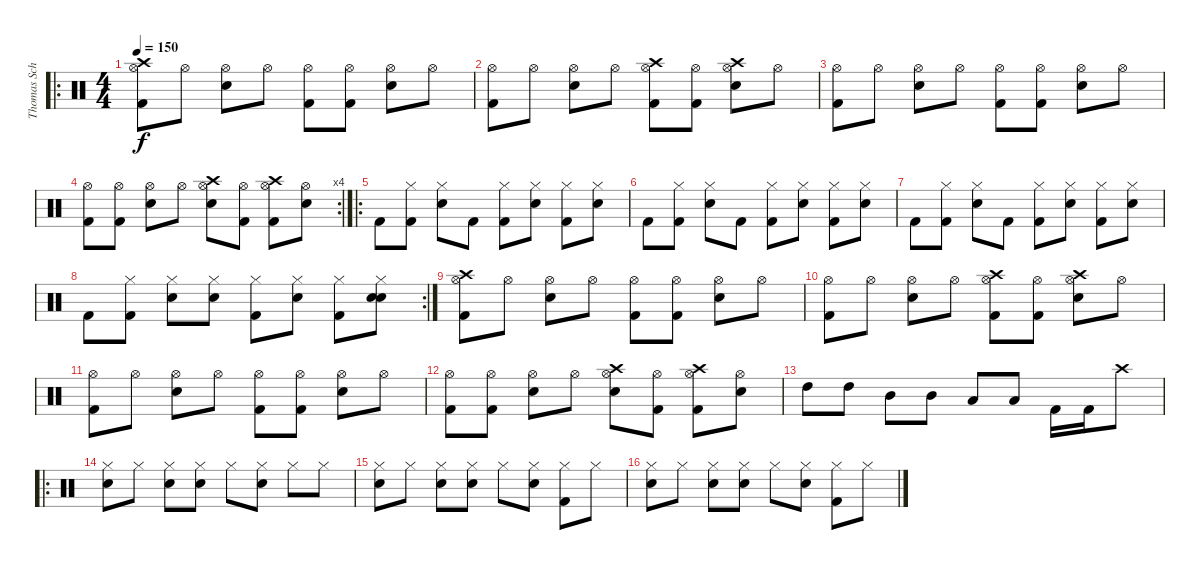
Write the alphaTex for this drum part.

\track ("Thomas Schnitzler" "Thomas Sch") {instrument percussion}
\staff {score}
\articulation defaults
\ro
\ts (4 4)
\tempo 150
\clef neutral
\ks c
("Hi-Hat (open)" "Crash high (hit)" "Kick (hit) 2").8{dy f} "Hi-Hat (open)".8 ("Hi-Hat (open)" "Snare (hit) 2").8 "Hi-Hat (open)".8 ("Hi-Hat (open)" "Kick (hit) 2").8 ("Hi-Hat (open)" "Kick (hit) 2").8 ("Hi-Hat (open)" "Snare (hit) 2").8 "Hi-Hat (open)".8 |
("Hi-Hat (open)" "Kick (hit) 2").8 "Hi-Hat (open)".8 ("Hi-Hat (open)" "Snare (hit) 2").8 "Hi-Hat (open)".8 ("Hi-Hat (open)" "Crash high (hit)" "Kick (hit) 2").8 ("Hi-Hat (open)" "Kick (hit) 2").8 ("Hi-Hat (open)" "Crash high (hit)" "Snare (hit) 2").8 "Hi-Hat (open)".8 |
("Hi-Hat (open)" "Kick (hit) 2").8 "Hi-Hat (open)".8 ("Hi-Hat (open)" "Snare (hit) 2").8 "Hi-Hat (open)".8 ("Hi-Hat (open)" "Kick (hit) 2").8 ("Hi-Hat (open)" "Kick (hit) 2").8 ("Hi-Hat (open)" "Snare (hit) 2").8 "Hi-Hat (open)".8 |
\rc 4
("Hi-Hat (open)" "Kick (hit) 2").8 ("Hi-Hat (open)" "Kick (hit) 2").8 ("Hi-Hat (open)" "Snare (hit) 2").8 "Hi-Hat (open)".8 ("Hi-Hat (open)" "Crash high (hit)" "Snare (hit) 2").8 ("Hi-Hat (open)" "Kick (hit) 2").8 ("Hi-Hat (open)" "Crash high (hit)" "Kick (hit) 2").8 ("Hi-Hat (open)" "Snare (hit) 2").8 |
\ro "Kick (hit) 2".8
("Hi-Hat (closed)" "Kick (hit) 2").8 ("Hi-Hat (closed)" "Snare (hit) 2").8 "Kick (hit) 2".8 ("Hi-Hat (closed)" "Kick (hit) 2").8 ("Hi-Hat (closed)" "Snare (hit) 2").8 ("Hi-Hat (closed)" "Kick (hit) 2").8 ("Hi-Hat (closed)" "Snare (hit) 2").8 |
"Kick (hit) 2".8 ("Hi-Hat (closed)" "Kick (hit) 2").8 ("Hi-Hat (closed)" "Snare (hit) 2").8 "Kick (hit) 2".8 ("Hi-Hat (closed)" "Kick (hit) 2").8 ("Hi-Hat (closed)" "Snare (hit) 2").8 ("Hi-Hat (closed)" "Kick (hit) 2").8 ("Hi-Hat (closed)" "Snare (hit) 2").8 |
"Kick (hit) 2".8 ("Hi-Hat (closed)" "Kick (hit) 2").8 ("Hi-Hat (closed)" "Snare (hit) 2").8 "Kick (hit) 2".8 ("Hi-Hat (closed)" "Kick (hit) 2").8 ("Hi-Hat (closed)" "Snare (hit) 2").8 ("Hi-Hat (closed)" "Kick (hit) 2").8 ("Hi-Hat (closed)" "Snare (hit) 2").8 |
\rc 2 "Kick (hit) 2".8
("Hi-Hat (closed)" "Kick (hit) 2").8 ("Hi-Hat (closed)" "Snare (hit) 2").8 ("Hi-Hat (closed)" "Snare (hit) 2").8 ("Hi-Hat (closed)" "Kick (hit) 2").8 ("Hi-Hat (closed)" "Snare (hit) 2").8 ("Hi-Hat (closed)" "Kick (hit) 2").8 ("Hi-Hat (closed)" "Snare (hit) 2" "Snare (hit) 2").8 |
("Hi-Hat (open)" "Crash high (hit)" "Kick (hit) 2").8 "Hi-Hat (open)".8 ("Hi-Hat (open)" "Snare (hit) 2").8 "Hi-Hat (open)".8 ("Hi-Hat (open)" "Kick (hit) 2").8 ("Hi-Hat (open)" "Kick (hit) 2").8 ("Hi-Hat (open)" "Snare (hit) 2").8 "Hi-Hat (open)".8 |
("Hi-Hat (open)" "Kick (hit) 2").8 "Hi-Hat (open)".8 ("Hi-Hat (open)" "Snare (hit) 2").8 "Hi-Hat (open)".8 ("Hi-Hat (open)" "Crash high (hit)" "Kick (hit) 2").8 ("Hi-Hat (open)" "Kick (hit) 2").8 ("Hi-Hat (open)" "Crash high (hit)" "Snare (hit) 2").8 "Hi-Hat (open)".8 |
("Hi-Hat (open)" "Kick (hit) 2").8 "Hi-Hat (open)".8 ("Hi-Hat (open)" "Snare (hit) 2").8 "Hi-Hat (open)".8 ("Hi-Hat (open)" "Kick (hit) 2").8 ("Hi-Hat (open)" "Kick (hit) 2").8 ("Hi-Hat (open)" "Snare (hit) 2").8 "Hi-Hat (open)".8 |
("Hi-Hat (open)" "Kick (hit) 2").8 ("Hi-Hat (open)" "Kick (hit) 2").8 ("Hi-Hat (open)" "Snare (hit) 2").8 "Hi-Hat (open)".8 ("Hi-Hat (open)" "Crash high (hit)" "Snare (hit) 2").8 ("Hi-Hat (open)" "Kick (hit) 2").8 ("Hi-Hat (open)" "Crash high (hit)" "Kick (hit) 2").8 ("Hi-Hat (open)" "Snare (hit) 2").8 |
"High Tom (hit)".8 "High Tom (hit)".8 "Mid Tom (hit)".8 "Mid Tom (hit)".8 "Low Tom (hit)".8 "Low Tom (hit)".8 "Kick (hit) 2".16 "Kick (hit) 2".16 "Crash high (hit)".8 |
\ro
("Hi-Hat (closed)" "Snare (hit) 2").8 "Hi-Hat (closed)".8 ("Hi-Hat (closed)" "Snare (hit) 2").8 ("Hi-Hat (closed)" "Snare (hit) 2").8 "Hi-Hat (closed)".8 ("Hi-Hat (closed)" "Snare (hit) 2").8 "Hi-Hat (closed)".8 "Hi-Hat (closed)".8 |
("Hi-Hat (closed)" "Snare (hit) 2").8 "Hi-Hat (closed)".8 ("Hi-Hat (closed)" "Snare (hit) 2").8 ("Hi-Hat (closed)" "Snare (hit) 2").8 "Hi-Hat (closed)".8 ("Hi-Hat (closed)" "Snare (hit) 2").8 ("Hi-Hat (closed)" "Kick (hit) 2").8 "Hi-Hat (closed)".8 |
("Hi-Hat (closed)" "Snare (hit) 2").8 "Hi-Hat (closed)".8 ("Hi-Hat (closed)" "Snare (hit) 2").8 ("Hi-Hat (closed)" "Snare (hit) 2").8 "Hi-Hat (closed)".8 ("Hi-Hat (closed)" "Snare (hit) 2").8 ("Hi-Hat (closed)" "Kick (hit) 2").8 "Hi-Hat (closed)".8
